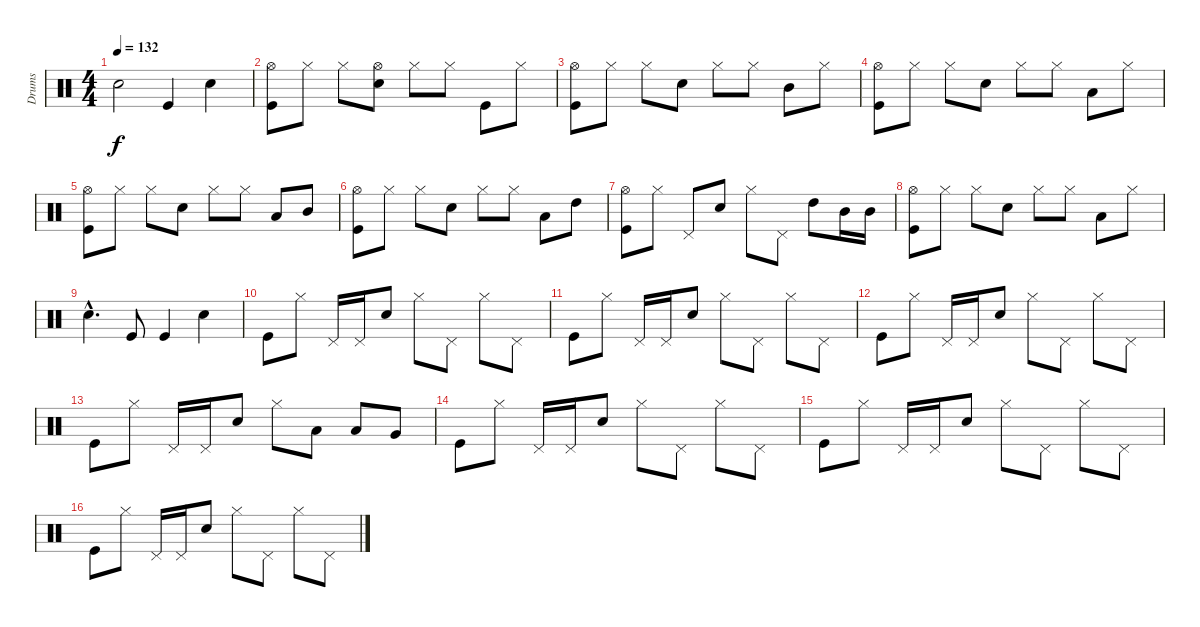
\track ("Drums" "Drums") {instrument percussion}
\staff {score}
\articulation defaults
\ts (4 4)
\tempo 132
\clef neutral
\ks c "Snare (hit) 2".2{dy f} "Kick (hit)".4 "Snare (hit) 2".4
|
("Hi-Hat (open)" "Kick (hit)").8 "Hi-Hat (closed)".8 "Hi-Hat (closed)".8 ("Hi-Hat (open)" "Snare (hit) 2").8 "Hi-Hat (closed)".8 "Hi-Hat (closed)".8 "Kick (hit)".8 "Hi-Hat (closed)".8 |
("Hi-Hat (open)" "Kick (hit)").8 "Hi-Hat (closed)".8 "Hi-Hat (closed)".8 "Snare (hit) 2".8 "Hi-Hat (closed)".8 "Hi-Hat (closed)".8 "Mid Tom (hit)".8 "Hi-Hat (closed)".8 |
("Hi-Hat (open)" "Kick (hit)").8 "Hi-Hat (closed)".8 "Hi-Hat (closed)".8 "Snare (hit) 2".8 "Hi-Hat (closed)".8 "Hi-Hat (closed)".8 "Low Tom (hit)".8 "Hi-Hat (closed)".8 |
("Hi-Hat (open)" "Kick (hit)").8 "Hi-Hat (closed)".8 "Hi-Hat (closed)".8 "Snare (hit) 2".8 "Hi-Hat (closed)".8 "Hi-Hat (closed)".8 "Low Tom (hit)".8 "Mid Tom (hit)".8 |
("Hi-Hat (open)" "Kick (hit)").8 "Hi-Hat (closed)".8 "Hi-Hat (closed)".8 "Snare (hit) 2".8 "Hi-Hat (closed)".8 "Hi-Hat (closed)".8 "Low Tom (hit)".8 "High Tom (hit)".8 |
("Hi-Hat (open)" "Kick (hit)").8 "Hi-Hat (closed)".8 "Pedal Hi-Hat (hit)".8 "Snare (hit) 2".8 "Hi-Hat (closed)".8 "Pedal Hi-Hat (hit)".8 "High Tom (hit)".8 "Mid Tom (hit)".16 "Mid Tom (hit)".16 |
("Hi-Hat (open)" "Kick (hit)").8 "Hi-Hat (closed)".8 "Hi-Hat (closed)".8 "Snare (hit) 2".8 "Hi-Hat (closed)".8 "Hi-Hat (closed)".8 "Low Tom (hit)".8 "Hi-Hat (closed)".8 |
"Snare (hit) 2"{hac}.4{d} "Kick (hit)".8 "Kick (hit)".4 "Snare (hit) 2".4 |
"Kick (hit)".8 "Hi-Hat (closed)".8 "Pedal Hi-Hat (hit)".16 "Pedal Hi-Hat (hit)".16 "Snare (hit) 2".8 "Hi-Hat (closed)".8 "Pedal Hi-Hat (hit)".8 "Hi-Hat (closed)".8 "Pedal Hi-Hat (hit)".8 |
"Kick (hit)".8 "Hi-Hat (closed)".8 "Pedal Hi-Hat (hit)".16 "Pedal Hi-Hat (hit)".16 "Snare (hit) 2".8 "Hi-Hat (closed)".8 "Pedal Hi-Hat (hit)".8 "Hi-Hat (closed)".8 "Pedal Hi-Hat (hit)".8 |
"Kick (hit)".8 "Hi-Hat (closed)".8 "Pedal Hi-Hat (hit)".16 "Pedal Hi-Hat (hit)".16 "Snare (hit) 2".8 "Hi-Hat (closed)".8 "Pedal Hi-Hat (hit)".8 "Hi-Hat (closed)".8 "Pedal Hi-Hat (hit)".8 |
"Kick (hit)".8 "Hi-Hat (closed)".8 "Pedal Hi-Hat (hit)".16 "Pedal Hi-Hat (hit)".16 "Snare (hit) 2".8 "Hi-Hat (closed)".8 "Low Tom (hit)".8 "Low Tom (hit)".8 "Very Low Tom (hit)".8 |
"Kick (hit)".8 "Hi-Hat (closed)".8 "Pedal Hi-Hat (hit)".16 "Pedal Hi-Hat (hit)".16 "Snare (hit) 2".8 "Hi-Hat (closed)".8 "Pedal Hi-Hat (hit)".8 "Hi-Hat (closed)".8 "Pedal Hi-Hat (hit)".8 |
"Kick (hit)".8 "Hi-Hat (closed)".8 "Pedal Hi-Hat (hit)".16 "Pedal Hi-Hat (hit)".16 "Snare (hit) 2".8 "Hi-Hat (closed)".8 "Pedal Hi-Hat (hit)".8 "Hi-Hat (closed)".8 "Pedal Hi-Hat (hit)".8 |
"Kick (hit)".8 "Hi-Hat (closed)".8 "Pedal Hi-Hat (hit)".16 "Pedal Hi-Hat (hit)".16 "Snare (hit) 2".8 "Hi-Hat (closed)".8 "Pedal Hi-Hat (hit)".8 "Hi-Hat (closed)".8 "Pedal Hi-Hat (hit)".8
